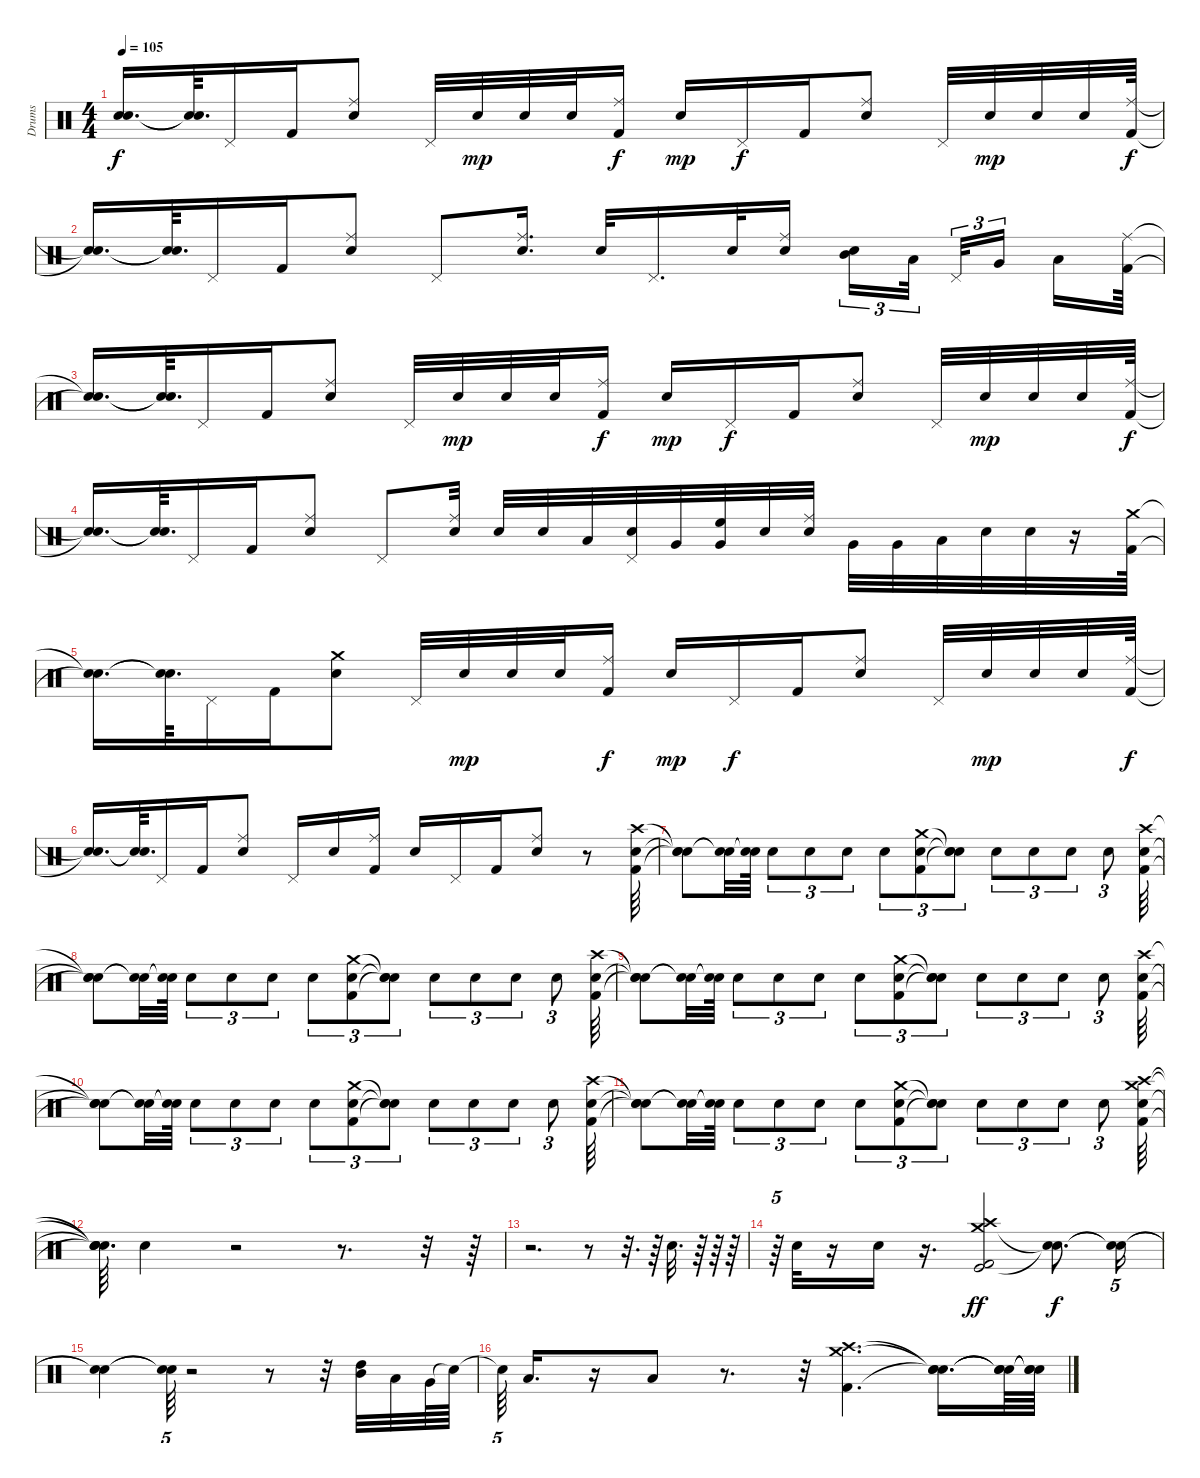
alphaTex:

\track ("Drums" "Drums") {instrument percussion}
\staff {score}
\articulation defaults
\ts (4 4)
\tempo 105
\clef neutral
\ks c
("Snare (hit)"{t} "Snare (hit)"{t}).16{d dy f} ("Snare (hit)"{t} "Snare (hit)"{t}).64{d} "Pedal Hi-Hat (hit)".16 "Kick (hit) 2".16 ("Electric Snare (hit)" "Ride (middle)").8 "Pedal Hi-Hat (hit)".32 "Electric Snare (hit)".32{dy mp} "Electric Snare (hit)".32 "Electric Snare (hit)".32 ("Kick (hit) 2" "Ride (middle)").16{dy f} "Electric Snare (hit)".16{dy mp} "Pedal Hi-Hat (hit)".16{dy f} "Kick (hit) 2".16 ("Electric Snare (hit)" "Ride (middle)").8 "Pedal Hi-Hat (hit)".32 "Electric Snare (hit)".32{dy mp} "Electric Snare (hit)".32 "Electric Snare (hit)".32 ("Kick (hit) 2" "Ride (middle)").64{dy f} |
("Snare (hit)"{t} "Snare (hit)"{t}).16{d} ("Snare (hit)"{t} "Snare (hit)"{t}).64{d} "Pedal Hi-Hat (hit)".16 "Kick (hit) 2".16 ("Electric Snare (hit)" "Ride (middle)").8 "Pedal Hi-Hat (hit)".8 ("Electric Snare (hit)" "Ride (middle)").16{d} "Electric Snare (hit)".32 "Pedal Hi-Hat (hit)".16{d} "Electric Snare (hit)".32 ("Electric Snare (hit)" "Ride (middle)").16 ("Electric Snare (hit)" "Mid Tom (hit)").16{tu (3 2)} "Low Tom (hit)".32{tu (3 2)} "Pedal Hi-Hat (hit)".32{tu (3 2)} "Very Low Tom (hit)".16{tu (3 2)} "Low Floor Tom (hit)".16 ("Kick (hit) 2" "Ride (middle)").64 |
("Snare (hit)"{t} "Snare (hit)"{t}).16{d} ("Snare (hit)"{t} "Snare (hit)"{t}).64{d} "Pedal Hi-Hat (hit)".16 "Kick (hit) 2".16 ("Electric Snare (hit)" "Ride (middle)").8 "Pedal Hi-Hat (hit)".32 "Electric Snare (hit)".32{dy mp} "Electric Snare (hit)".32 "Electric Snare (hit)".32 ("Kick (hit) 2" "Ride (middle)").16{dy f} "Electric Snare (hit)".16{dy mp} "Pedal Hi-Hat (hit)".16{dy f} "Kick (hit) 2".16 ("Electric Snare (hit)" "Ride (middle)").8 "Pedal Hi-Hat (hit)".32 "Electric Snare (hit)".32{dy mp} "Electric Snare (hit)".32 "Electric Snare (hit)".32 ("Kick (hit) 2" "Ride (middle)").64{dy f} |
("Snare (hit)"{t} "Snare (hit)"{t}).16{d} ("Snare (hit)"{t} "Snare (hit)"{t}).64{d} "Pedal Hi-Hat (hit)".16 "Kick (hit) 2".16 ("Electric Snare (hit)" "Ride (middle)").8 "Pedal Hi-Hat (hit)".8 ("Ride (middle)" "Electric Snare (hit)").32 "Electric Snare (hit)".32 "Electric Snare (hit)".32 "Low Tom (hit)".32 ("Pedal Hi-Hat (hit)" "Electric Snare (hit)").32 "Very Low Tom (hit)".32 ("High Floor Tom (hit)" "Very Low Tom (hit)").32 "Electric Snare (hit)".32 ("Ride (middle)" "Electric Snare (hit)").32 "Very Low Tom (hit)".32 "Very Low Tom (hit)".32 "Low Floor Tom (hit)".32 "Electric Snare (hit)".32 "Electric Snare (hit)".32 r.16 ("Crash medium (hit)" "Kick (hit) 2").64 |
("Snare (hit)"{t} "Snare (hit)"{t}).16{d} ("Snare (hit)"{t} "Snare (hit)"{t}).64{d} "Pedal Hi-Hat (hit)".16 "Kick (hit) 2".16 ("Crash medium (hit)" "Electric Snare (hit)").8 "Pedal Hi-Hat (hit)".32 "Electric Snare (hit)".32{dy mp} "Electric Snare (hit)".32 "Electric Snare (hit)".32 ("Kick (hit) 2" "Ride (middle)").16{dy f} "Electric Snare (hit)".16{dy mp} "Pedal Hi-Hat (hit)".16{dy f} "Kick (hit) 2".16 ("Electric Snare (hit)" "Ride (middle)").8 "Pedal Hi-Hat (hit)".32 "Electric Snare (hit)".32{dy mp} "Electric Snare (hit)".32 "Electric Snare (hit)".32 ("Kick (hit) 2" "Ride (middle)").64{dy f} |
("Snare (hit)"{t} "Snare (hit)"{t}).16{d} ("Snare (hit)"{t} "Snare (hit)"{t}).64{d} "Pedal Hi-Hat (hit)".16 "Kick (hit) 2".16 ("Electric Snare (hit)" "Ride (middle)").8 "Pedal Hi-Hat (hit)".16 "Electric Snare (hit)".16 ("Kick (hit) 2" "Ride (middle)").16 "Electric Snare (hit)".16 "Pedal Hi-Hat (hit)".16 "Kick (hit) 2".16 ("Electric Snare (hit)" "Ride (middle)").8 r.8 ("Electric Snare (hit)" "Crash high (hit)" "Kick (hit) 2").64 |
("Snare (hit)"{t} "Snare (hit)"{t} "Snare (hit)"{t}).8 ("Snare (hit)"{t} "Snare (hit)"{t}).32 ("Snare (hit)"{t} "Snare (hit)"{t}).64 "Electric Snare (hit)".8{tu (3 2)} "Electric Snare (hit)".8{tu (3 2)} "Electric Snare (hit)".8{tu (3 2)} "Electric Snare (hit)".8{tu (3 2)} ("Electric Snare (hit)" "Crash medium (hit)" "Kick (hit) 2").8{tu (3 2)} ("Snare (hit)"{t} "Snare (hit)"{t} "Snare (hit)"{t}).8{tu (3 2)} "Electric Snare (hit)".8{tu (3 2)} "Electric Snare (hit)".8{tu (3 2)} "Electric Snare (hit)".8{tu (3 2)} "Electric Snare (hit)".8{tu (3 2)} ("Electric Snare (hit)" "Crash high (hit)" "Kick (hit) 2").64 |
("Snare (hit)"{t} "Snare (hit)"{t} "Snare (hit)"{t}).8 ("Snare (hit)"{t} "Snare (hit)"{t}).32 ("Snare (hit)"{t} "Snare (hit)"{t}).64 "Electric Snare (hit)".8{tu (3 2)} "Electric Snare (hit)".8{tu (3 2)} "Electric Snare (hit)".8{tu (3 2)} "Electric Snare (hit)".8{tu (3 2)} ("Electric Snare (hit)" "Crash medium (hit)" "Kick (hit) 2").8{tu (3 2)} ("Snare (hit)"{t} "Snare (hit)"{t} "Snare (hit)"{t}).8{tu (3 2)} "Electric Snare (hit)".8{tu (3 2)} "Electric Snare (hit)".8{tu (3 2)} "Electric Snare (hit)".8{tu (3 2)} "Electric Snare (hit)".8{tu (3 2)} ("Electric Snare (hit)" "Crash high (hit)" "Kick (hit) 2").64 |
("Snare (hit)"{t} "Snare (hit)"{t} "Snare (hit)"{t}).8 ("Snare (hit)"{t} "Snare (hit)"{t}).32 ("Snare (hit)"{t} "Snare (hit)"{t}).64 "Electric Snare (hit)".8{tu (3 2)} "Electric Snare (hit)".8{tu (3 2)} "Electric Snare (hit)".8{tu (3 2)} "Electric Snare (hit)".8{tu (3 2)} ("Electric Snare (hit)" "Crash medium (hit)" "Kick (hit) 2").8{tu (3 2)} ("Snare (hit)"{t} "Snare (hit)"{t} "Snare (hit)"{t}).8{tu (3 2)} "Electric Snare (hit)".8{tu (3 2)} "Electric Snare (hit)".8{tu (3 2)} "Electric Snare (hit)".8{tu (3 2)} "Electric Snare (hit)".8{tu (3 2)} ("Electric Snare (hit)" "Crash high (hit)" "Kick (hit) 2").64 |
("Snare (hit)"{t} "Snare (hit)"{t} "Snare (hit)"{t}).8 ("Snare (hit)"{t} "Snare (hit)"{t}).32 ("Snare (hit)"{t} "Snare (hit)"{t}).64 "Electric Snare (hit)".8{tu (3 2)} "Electric Snare (hit)".8{tu (3 2)} "Electric Snare (hit)".8{tu (3 2)} "Electric Snare (hit)".8{tu (3 2)} ("Electric Snare (hit)" "Crash medium (hit)" "Kick (hit) 2").8{tu (3 2)} ("Snare (hit)"{t} "Snare (hit)"{t} "Snare (hit)"{t}).8{tu (3 2)} "Electric Snare (hit)".8{tu (3 2)} "Electric Snare (hit)".8{tu (3 2)} "Electric Snare (hit)".8{tu (3 2)} "Electric Snare (hit)".8{tu (3 2)} ("Electric Snare (hit)" "Crash high (hit)" "Kick (hit) 2").64 |
("Snare (hit)"{t} "Snare (hit)"{t} "Snare (hit)"{t}).8 ("Snare (hit)"{t} "Snare (hit)"{t}).32 ("Snare (hit)"{t} "Snare (hit)"{t}).64 "Electric Snare (hit)".8{tu (3 2)} "Electric Snare (hit)".8{tu (3 2)} "Electric Snare (hit)".8{tu (3 2)} "Electric Snare (hit)".8{tu (3 2)} ("Electric Snare (hit)" "Crash medium (hit)" "Kick (hit) 2").8{tu (3 2)} ("Snare (hit)"{t} "Snare (hit)"{t} "Snare (hit)"{t}).8{tu (3 2)} "Electric Snare (hit)".8{tu (3 2)} "Electric Snare (hit)".8{tu (3 2)} "Electric Snare (hit)".8{tu (3 2)} "Electric Snare (hit)".8{tu (3 2)} ("Electric Snare (hit)" "Crash medium (hit)" "Kick (hit) 2" "Crash high (hit)").64 |
("Snare (hit)"{t} "Snare (hit)"{t} "Snare (hit)"{t} "Snare (hit)"{t}).64{d} "Electric Snare (hit)".4 r.2 r.8{d} r.32 r.64 |
r.2{d} r.8 r.32{d} r.64 "Electric Snare (hit)".32{d} r.64 r.64 r.64 |
r.64{tu (5 4)} "Electric Snare (hit)".32 r.16 "Electric Snare (hit)".16 r.16{d} ("Crash medium (hit)" "Kick (hit)" "Kick (hit) 2" "Crash high (hit)").2{dy ff} ("Snare (hit)"{t} "Snare (hit)"{t}).8{d dy f} ("Snare (hit)"{t} "Snare (hit)"{t}).16{tu (5 4)} |
("Snare (hit)"{t} "Snare (hit)"{t}).4 ("Snare (hit)"{t} "Snare (hit)"{t}).64{tu (5 4)} r.2 r.8 r.32 ("High Tom (hit)" "Mid Tom (hit)").32 "Low Tom (hit)".32 "Very Low Tom (hit)".64 "Snare (hit)"{t}.64 |
"Snare (hit)"{t}.64{tu (5 4)} "Low Floor Tom (hit)".16{d} r.16 "Low Floor Tom (hit)".8 r.8{d} r.32 ("Crash medium (hit)" "Kick (hit) 2" "Crash high (hit)").4{d} ("Snare (hit)"{t} "Snare (hit)"{t} "Snare (hit)"{t}).16{d} ("Snare (hit)"{t} "Snare (hit)"{t} "Snare (hit)"{t}).64 ("Snare (hit)"{t} "Snare (hit)"{t} "Snare (hit)"{t}).64
